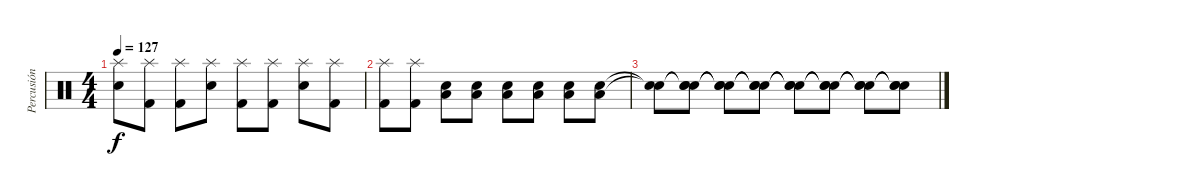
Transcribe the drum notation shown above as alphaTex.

\track ("Percusión" "Percusión") {instrument percussion}
\staff {score}
\articulation defaults
\ts (4 4)
\tempo 127
\clef neutral
\ks c
("Splash (hit)" "Electric Snare (hit)").8{dy f} ("Splash (hit)" "Kick (hit) 2").8 ("Splash (hit)" "Kick (hit) 2").8 ("Splash (hit)" "Electric Snare (hit)").8 ("Splash (hit)" "Kick (hit) 2").8 ("Splash (hit)" "Kick (hit) 2").8 ("Splash (hit)" "Electric Snare (hit)").8 ("Splash (hit)" "Kick (hit) 2").8 |
("Splash (hit)" "Kick (hit) 2").8 ("Splash (hit)" "Kick (hit) 2").8 ("Electric Snare (hit)" "Low Tom (hit)").8 ("Electric Snare (hit)" "Low Tom (hit)").8 ("Electric Snare (hit)" "Low Tom (hit)").8 ("Electric Snare (hit)" "Low Tom (hit)").8 ("Electric Snare (hit)" "Low Tom (hit)").8 ("Electric Snare (hit)" "Low Tom (hit)").8 |
("Snare (hit)"{t} "Snare (hit)"{t}).8 ("Snare (hit)"{t} "Snare (hit)"{t} "Snare (hit)").8 ("Snare (hit)"{t} "Snare (hit)"{t} "Snare (hit)"{t}).8 ("Snare (hit)"{t} "Snare (hit)"{t} "Snare (hit)"{t}).8 ("Snare (hit)"{t} "Snare (hit)"{t} "Snare (hit)"{t}).8 ("Snare (hit)"{t} "Snare (hit)"{t} "Snare (hit)"{t}).8 ("Snare (hit)"{t} "Snare (hit)"{t} "Snare (hit)"{t}).8 ("Snare (hit)"{t} "Snare (hit)"{t} "Snare (hit)"{t}).8
